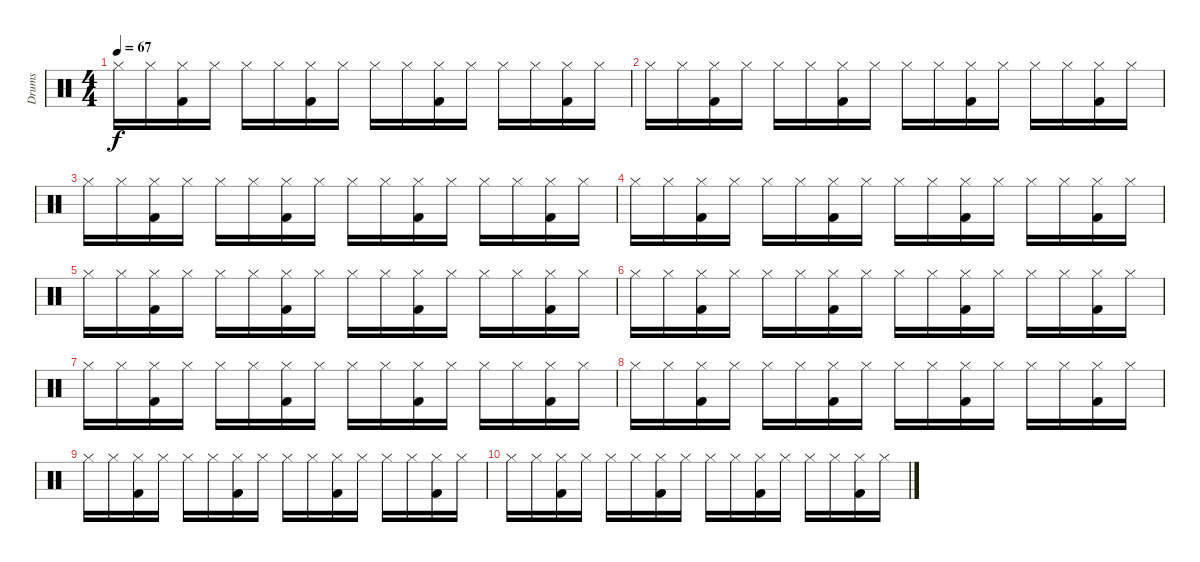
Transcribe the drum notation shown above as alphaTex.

\track ("Drums" "Drums") {instrument percussion}
\staff {score}
\articulation defaults
\ts (4 4)
\tempo 67
\clef neutral
\ks c "Hi-Hat (closed)".16{dy f} "Hi-Hat (closed)".16
("Hi-Hat (closed)" "Kick (hit) 2").16 "Hi-Hat (closed)".16 "Hi-Hat (closed)".16 "Hi-Hat (closed)".16 ("Hi-Hat (closed)" "Kick (hit) 2").16 "Hi-Hat (closed)".16 "Hi-Hat (closed)".16 "Hi-Hat (closed)".16 ("Hi-Hat (closed)" "Kick (hit) 2").16 "Hi-Hat (closed)".16 "Hi-Hat (closed)".16 "Hi-Hat (closed)".16 ("Hi-Hat (closed)" "Kick (hit) 2").16 "Hi-Hat (closed)".16 |
"Hi-Hat (closed)".16 "Hi-Hat (closed)".16 ("Hi-Hat (closed)" "Kick (hit) 2").16 "Hi-Hat (closed)".16 "Hi-Hat (closed)".16 "Hi-Hat (closed)".16 ("Hi-Hat (closed)" "Kick (hit) 2").16 "Hi-Hat (closed)".16 "Hi-Hat (closed)".16 "Hi-Hat (closed)".16 ("Hi-Hat (closed)" "Kick (hit) 2").16 "Hi-Hat (closed)".16 "Hi-Hat (closed)".16 "Hi-Hat (closed)".16 ("Hi-Hat (closed)" "Kick (hit) 2").16 "Hi-Hat (closed)".16 |
"Hi-Hat (closed)".16 "Hi-Hat (closed)".16 ("Hi-Hat (closed)" "Kick (hit) 2").16 "Hi-Hat (closed)".16 "Hi-Hat (closed)".16 "Hi-Hat (closed)".16 ("Hi-Hat (closed)" "Kick (hit) 2").16 "Hi-Hat (closed)".16 "Hi-Hat (closed)".16 "Hi-Hat (closed)".16 ("Hi-Hat (closed)" "Kick (hit) 2").16 "Hi-Hat (closed)".16 "Hi-Hat (closed)".16 "Hi-Hat (closed)".16 ("Hi-Hat (closed)" "Kick (hit) 2").16 "Hi-Hat (closed)".16 |
"Hi-Hat (closed)".16 "Hi-Hat (closed)".16 ("Hi-Hat (closed)" "Kick (hit) 2").16 "Hi-Hat (closed)".16 "Hi-Hat (closed)".16 "Hi-Hat (closed)".16 ("Hi-Hat (closed)" "Kick (hit) 2").16 "Hi-Hat (closed)".16 "Hi-Hat (closed)".16 "Hi-Hat (closed)".16 ("Hi-Hat (closed)" "Kick (hit) 2").16 "Hi-Hat (closed)".16 "Hi-Hat (closed)".16 "Hi-Hat (closed)".16 ("Hi-Hat (closed)" "Kick (hit) 2").16 "Hi-Hat (closed)".16 |
"Hi-Hat (closed)".16 "Hi-Hat (closed)".16 ("Hi-Hat (closed)" "Kick (hit) 2").16 "Hi-Hat (closed)".16 "Hi-Hat (closed)".16 "Hi-Hat (closed)".16 ("Hi-Hat (closed)" "Kick (hit) 2").16 "Hi-Hat (closed)".16 "Hi-Hat (closed)".16 "Hi-Hat (closed)".16 ("Hi-Hat (closed)" "Kick (hit) 2").16 "Hi-Hat (closed)".16 "Hi-Hat (closed)".16 "Hi-Hat (closed)".16 ("Hi-Hat (closed)" "Kick (hit) 2").16 "Hi-Hat (closed)".16 |
"Hi-Hat (closed)".16 "Hi-Hat (closed)".16 ("Hi-Hat (closed)" "Kick (hit) 2").16 "Hi-Hat (closed)".16 "Hi-Hat (closed)".16 "Hi-Hat (closed)".16 ("Hi-Hat (closed)" "Kick (hit) 2").16 "Hi-Hat (closed)".16 "Hi-Hat (closed)".16 "Hi-Hat (closed)".16 ("Hi-Hat (closed)" "Kick (hit) 2").16 "Hi-Hat (closed)".16 "Hi-Hat (closed)".16 "Hi-Hat (closed)".16 ("Hi-Hat (closed)" "Kick (hit) 2").16 "Hi-Hat (closed)".16 |
"Hi-Hat (closed)".16{volume 0} "Hi-Hat (closed)".16 ("Hi-Hat (closed)" "Kick (hit) 2").16 "Hi-Hat (closed)".16 "Hi-Hat (closed)".16 "Hi-Hat (closed)".16 ("Hi-Hat (closed)" "Kick (hit) 2").16 "Hi-Hat (closed)".16 "Hi-Hat (closed)".16 "Hi-Hat (closed)".16 ("Hi-Hat (closed)" "Kick (hit) 2").16 "Hi-Hat (closed)".16 "Hi-Hat (closed)".16 "Hi-Hat (closed)".16 ("Hi-Hat (closed)" "Kick (hit) 2").16 "Hi-Hat (closed)".16 |
"Hi-Hat (closed)".16 "Hi-Hat (closed)".16 ("Hi-Hat (closed)" "Kick (hit) 2").16 "Hi-Hat (closed)".16 "Hi-Hat (closed)".16 "Hi-Hat (closed)".16 ("Hi-Hat (closed)" "Kick (hit) 2").16 "Hi-Hat (closed)".16 "Hi-Hat (closed)".16 "Hi-Hat (closed)".16 ("Hi-Hat (closed)" "Kick (hit) 2").16 "Hi-Hat (closed)".16 "Hi-Hat (closed)".16 "Hi-Hat (closed)".16 ("Hi-Hat (closed)" "Kick (hit) 2").16 "Hi-Hat (closed)".16 |
"Hi-Hat (closed)".16 "Hi-Hat (closed)".16 ("Hi-Hat (closed)" "Kick (hit) 2").16 "Hi-Hat (closed)".16 "Hi-Hat (closed)".16 "Hi-Hat (closed)".16 ("Hi-Hat (closed)" "Kick (hit) 2").16 "Hi-Hat (closed)".16 "Hi-Hat (closed)".16 "Hi-Hat (closed)".16 ("Hi-Hat (closed)" "Kick (hit) 2").16 "Hi-Hat (closed)".16 "Hi-Hat (closed)".16 "Hi-Hat (closed)".16 ("Hi-Hat (closed)" "Kick (hit) 2").16 "Hi-Hat (closed)".16 |
"Hi-Hat (closed)".16 "Hi-Hat (closed)".16 ("Hi-Hat (closed)" "Kick (hit) 2").16 "Hi-Hat (closed)".16 "Hi-Hat (closed)".16 "Hi-Hat (closed)".16 ("Hi-Hat (closed)" "Kick (hit) 2").16 "Hi-Hat (closed)".16 "Hi-Hat (closed)".16 "Hi-Hat (closed)".16 ("Hi-Hat (closed)" "Kick (hit) 2").16 "Hi-Hat (closed)".16 "Hi-Hat (closed)".16 "Hi-Hat (closed)".16 ("Hi-Hat (closed)" "Kick (hit) 2").16 "Hi-Hat (closed)".16
